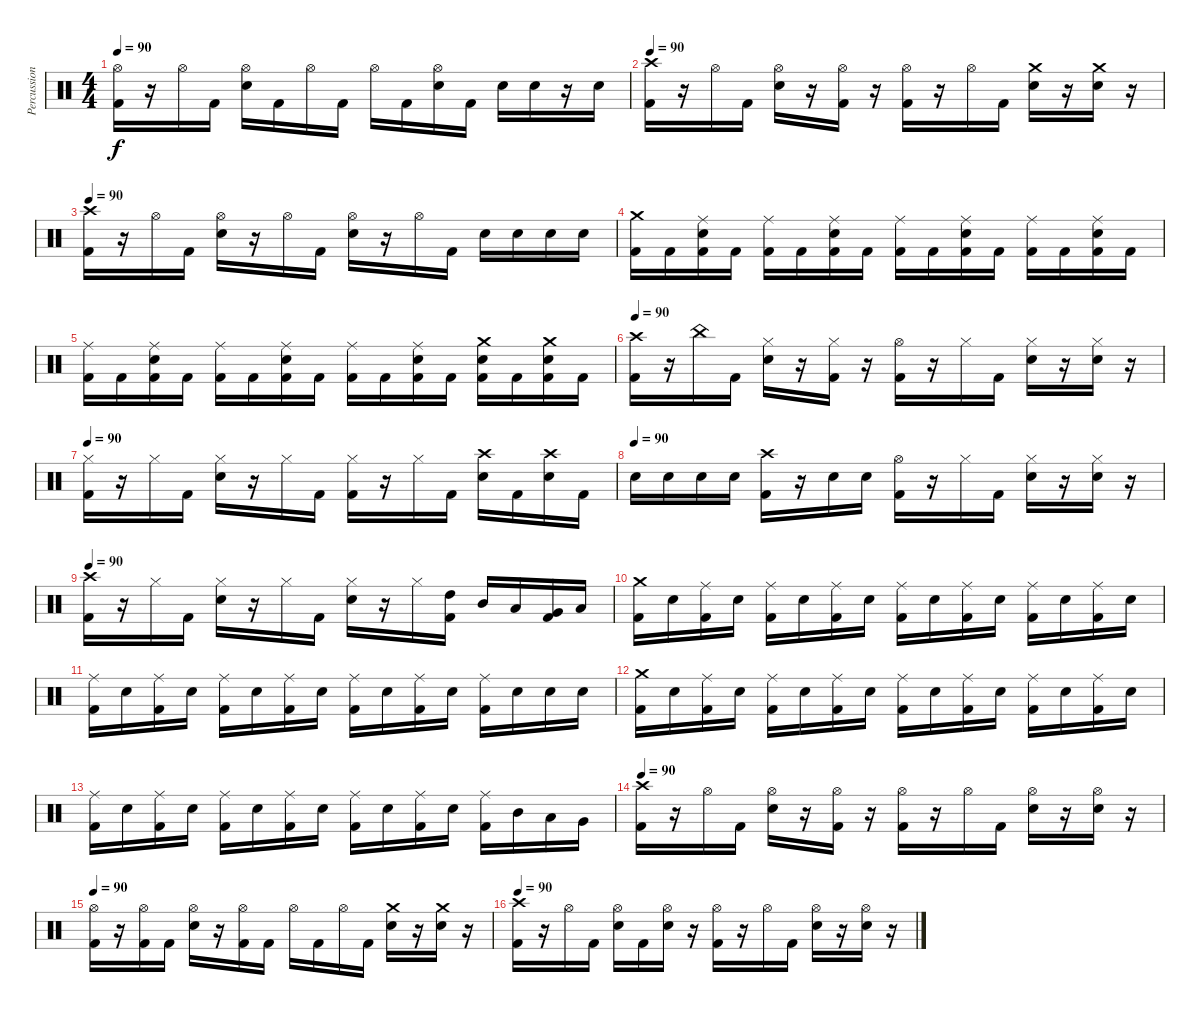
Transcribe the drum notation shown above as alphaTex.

\track ("Percussion" "Percussion") {instrument percussion}
\staff {score}
\articulation defaults
\ts (4 4)
\tempo 90
\clef neutral
\ks c
("Hi-Hat (open)" "Kick (hit) 2").16{dy f} r.16 "Hi-Hat (open)".16 "Kick (hit) 2".16 ("Hi-Hat (open)" "Snare (hit) 2").16 "Kick (hit) 2".16 "Hi-Hat (open)".16 "Kick (hit) 2".16 "Hi-Hat (open)".16 "Kick (hit) 2".16 ("Hi-Hat (open)" "Snare (hit) 2").16 "Kick (hit) 2".16 "Snare (hit) 2".16 "Snare (hit) 2".16 r.16 "Snare (hit) 2".16 |
\tempo 90
("Crash high (hit)" "Kick (hit) 2").16 r.16 "Hi-Hat (open)".16 "Kick (hit) 2".16 ("Hi-Hat (open)" "Snare (hit) 2").16 r.16 ("Hi-Hat (open)" "Kick (hit) 2").16 r.16 ("Hi-Hat (open)" "Kick (hit) 2").16 r.16 "Hi-Hat (open)".16 "Kick (hit) 2".16 ("Crash medium (hit)" "Snare (hit) 2").16 r.16 ("Crash medium (hit)" "Snare (hit) 2").16 r.16 |
\tempo 90
("Crash high (hit)" "Kick (hit) 2").16 r.16 "Hi-Hat (open)".16 "Kick (hit) 2".16 ("Hi-Hat (open)" "Snare (hit) 2").16 r.16 "Hi-Hat (open)".16 "Kick (hit) 2".16 ("Hi-Hat (open)" "Snare (hit) 2").16 r.16 "Hi-Hat (open)".16 "Kick (hit) 2".16 "Snare (hit) 2".16 "Snare (hit) 2".16 "Snare (hit) 2".16 "Snare (hit) 2".16 |
("Crash medium (hit)" "Kick (hit) 2").16 "Kick (hit) 2".16 ("Ride (middle)" "Snare (hit) 2" "Kick (hit) 2").16 "Kick (hit) 2".16 ("Ride (middle)" "Kick (hit) 2").16 "Kick (hit) 2".16 ("Ride (middle)" "Snare (hit) 2" "Kick (hit) 2").16 "Kick (hit) 2".16 ("Ride (middle)" "Kick (hit) 2").16 "Kick (hit) 2".16 ("Ride (middle)" "Snare (hit) 2" "Kick (hit) 2").16 "Kick (hit) 2".16 ("Ride (middle)" "Kick (hit) 2").16 "Kick (hit) 2".16 ("Ride (middle)" "Snare (hit) 2" "Kick (hit) 2").16 "Kick (hit) 2".16 |
("Ride (middle)" "Kick (hit) 2").16 "Kick (hit) 2".16 ("Ride (middle)" "Snare (hit) 2" "Kick (hit) 2").16 "Kick (hit) 2".16 ("Ride (middle)" "Kick (hit) 2").16 "Kick (hit) 2".16 ("Ride (middle)" "Snare (hit) 2" "Kick (hit) 2").16 "Kick (hit) 2".16 ("Ride (middle)" "Kick (hit) 2").16 "Kick (hit) 2".16 ("Ride (middle)" "Snare (hit) 2" "Kick (hit) 2").16 "Kick (hit) 2".16 ("Crash medium (hit)" "Snare (hit) 2" "Kick (hit) 2").16 "Kick (hit) 2".16 ("Crash medium (hit)" "Snare (hit) 2" "Kick (hit) 2").16 "Kick (hit) 2".16 |
\tempo 90
("Crash high (hit)" "Kick (hit) 2").16 r.16 "China (hit)".16 "Kick (hit) 2".16 ("Hi-Hat (closed)" "Snare (hit) 2").16 r.16 ("Hi-Hat (closed)" "Kick (hit) 2").16 r.16 ("Hi-Hat (open)" "Kick (hit) 2").16 r.16 "Hi-Hat (closed)".16 "Kick (hit) 2".16 ("Hi-Hat (closed)" "Snare (hit) 2").16 r.16 ("Hi-Hat (closed)" "Snare (hit) 2").16 r.16 |
\tempo 90
("Hi-Hat (closed)" "Kick (hit) 2").16 r.16 "Hi-Hat (closed)".16 "Kick (hit) 2".16 ("Hi-Hat (closed)" "Snare (hit) 2").16 r.16 "Hi-Hat (closed)".16 "Kick (hit) 2".16 ("Hi-Hat (closed)" "Kick (hit) 2").16 r.16 "Hi-Hat (closed)".16 "Kick (hit) 2".16 ("Crash high (hit)" "Snare (hit) 2").16 "Kick (hit) 2".16 ("Crash high (hit)" "Snare (hit) 2").16 "Kick (hit) 2".16 |
\tempo (90)
"Snare (hit) 2".16 "Snare (hit) 2".16 "Snare (hit) 2".16 "Snare (hit) 2".16 ("Crash high (hit)" "Kick (hit) 2").16 r.16 "Snare (hit) 2".16 "Snare (hit) 2".16 ("Hi-Hat (open)" "Kick (hit) 2").16 r.16 "Hi-Hat (closed)".16 "Kick (hit) 2".16 ("Hi-Hat (closed)" "Snare (hit) 2").16 r.16 ("Hi-Hat (closed)" "Snare (hit) 2").16 r.16 |
\tempo 90
("Crash high (hit)" "Kick (hit) 2").16 r.16 "Hi-Hat (closed)".16 "Kick (hit) 2".16 ("Hi-Hat (closed)" "Snare (hit) 2").16 r.16 "Hi-Hat (closed)".16 "Kick (hit) 2".16 ("Hi-Hat (closed)" "Snare (hit) 2").16 r.16 "Hi-Hat (closed)".16 ("High Tom (hit)" "Kick (hit) 2").16 "Mid Tom (hit)".16 "Low Tom (hit)".16 ("Very Low Tom (hit)" "Kick (hit) 2").16 "Low Floor Tom (hit)".16 |
("Crash medium (hit)" "Kick (hit) 2").16 "Snare (hit) 2".16 ("Ride (middle)" "Kick (hit) 2").16 "Snare (hit) 2".16 ("Ride (middle)" "Kick (hit) 2").16 "Snare (hit) 2".16 ("Ride (middle)" "Kick (hit) 2").16 "Snare (hit) 2".16 ("Ride (middle)" "Kick (hit) 2").16 "Snare (hit) 2".16 ("Ride (middle)" "Kick (hit) 2").16 "Snare (hit) 2".16 ("Ride (middle)" "Kick (hit) 2").16 "Snare (hit) 2".16 ("Ride (middle)" "Kick (hit) 2").16 "Snare (hit) 2".16 |
("Ride (middle)" "Kick (hit) 2").16 "Snare (hit) 2".16 ("Ride (middle)" "Kick (hit) 2").16 "Snare (hit) 2".16 ("Ride (middle)" "Kick (hit) 2").16 "Snare (hit) 2".16 ("Ride (middle)" "Kick (hit) 2").16 "Snare (hit) 2".16 ("Ride (middle)" "Kick (hit) 2").16 "Snare (hit) 2".16 ("Ride (middle)" "Kick (hit) 2").16 "Snare (hit) 2".16 ("Ride (middle)" "Kick (hit) 2").16 "Snare (hit) 2".16 "Snare (hit) 2".16 "Snare (hit) 2".16 |
("Crash medium (hit)" "Kick (hit) 2").16 "Snare (hit) 2".16 ("Ride (middle)" "Kick (hit) 2").16 "Snare (hit) 2".16 ("Ride (middle)" "Kick (hit) 2").16 "Snare (hit) 2".16 ("Ride (middle)" "Kick (hit) 2").16 "Snare (hit) 2".16 ("Ride (middle)" "Kick (hit) 2").16 "Snare (hit) 2".16 ("Ride (middle)" "Kick (hit) 2").16 "Snare (hit) 2".16 ("Ride (middle)" "Kick (hit) 2").16 "Snare (hit) 2".16 ("Ride (middle)" "Kick (hit) 2").16 "Snare (hit) 2".16 |
("Ride (middle)" "Kick (hit) 2").16 "Snare (hit) 2".16 ("Ride (middle)" "Kick (hit) 2").16 "Snare (hit) 2".16 ("Ride (middle)" "Kick (hit) 2").16 "Snare (hit) 2".16 ("Ride (middle)" "Kick (hit) 2").16 "Snare (hit) 2".16 ("Ride (middle)" "Kick (hit) 2").16 "Snare (hit) 2".16 ("Ride (middle)" "Kick (hit) 2").16 "Snare (hit) 2".16 ("Ride (middle)" "Kick (hit) 2").16 "Mid Tom (hit)".16 "Low Tom (hit)".16 "Very Low Tom (hit)".16 |
\tempo 90
("Crash high (hit)" "Kick (hit) 2").16 r.16 "Hi-Hat (open)".16 "Kick (hit) 2".16 ("Hi-Hat (open)" "Snare (hit) 2").16 r.16 ("Hi-Hat (open)" "Kick (hit) 2").16 r.16 ("Hi-Hat (open)" "Kick (hit) 2").16 r.16 "Hi-Hat (open)".16 "Kick (hit) 2".16 ("Hi-Hat (open)" "Snare (hit) 2").16 r.16 ("Hi-Hat (open)" "Snare (hit) 2").16 r.16 |
\tempo 90
("Hi-Hat (open)" "Kick (hit) 2").16 r.16 ("Hi-Hat (open)" "Kick (hit) 2").16 "Kick (hit) 2".16 ("Hi-Hat (open)" "Snare (hit) 2").16 r.16 ("Hi-Hat (open)" "Kick (hit) 2").16 "Kick (hit) 2".16 "Hi-Hat (open)".16 "Kick (hit) 2".16 "Hi-Hat (open)".16 "Kick (hit) 2".16 ("Crash medium (hit)" "Snare (hit) 2").16 r.16 ("Crash medium (hit)" "Snare (hit) 2").16 r.16 |
\tempo 90
("Crash high (hit)" "Kick (hit) 2").16 r.16 "Hi-Hat (open)".16 "Kick (hit) 2".16 ("Hi-Hat (open)" "Snare (hit) 2").16 "Kick (hit) 2".16 ("Hi-Hat (open)" "Snare (hit) 2").16 r.16 ("Hi-Hat (open)" "Kick (hit) 2").16 r.16 "Hi-Hat (open)".16 "Kick (hit) 2".16 ("Hi-Hat (open)" "Snare (hit) 2").16 r.16 ("Hi-Hat (open)" "Snare (hit) 2").16 r.16
